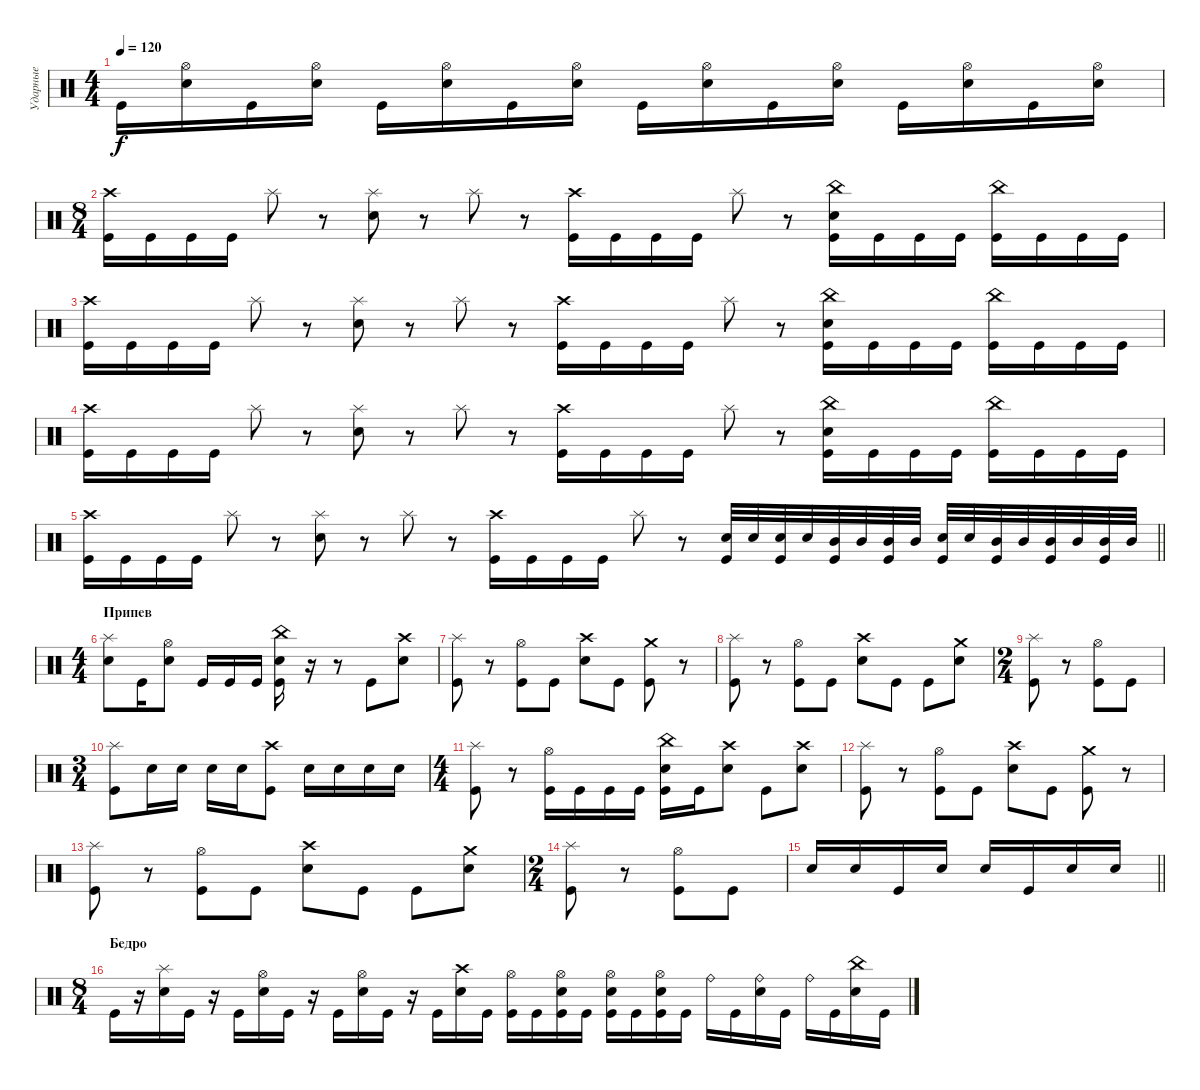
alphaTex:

\track ("Ударные" "Ударные") {instrument percussion}
\staff {score}
\articulation defaults
\ts (4 4)
\tempo 120
\clef neutral
\ks c "Kick (hit)".16{dy f}
("Snare (hit) 2" "Hi-Hat (open)").16 "Kick (hit)".16 ("Snare (hit) 2" "Hi-Hat (open)").16 "Kick (hit)".16 ("Snare (hit) 2" "Hi-Hat (open)").16 "Kick (hit)".16 ("Snare (hit) 2" "Hi-Hat (open)").16 "Kick (hit)".16 ("Snare (hit) 2" "Hi-Hat (open)").16 "Kick (hit)".16 ("Snare (hit) 2" "Hi-Hat (open)").16 "Kick (hit)".16 ("Snare (hit) 2" "Hi-Hat (open)").16 "Kick (hit)".16 ("Snare (hit) 2" "Hi-Hat (open)").16 |
\ts (8 4)
("Kick (hit)" "Crash high (hit)").16 "Kick (hit)".16 "Kick (hit)".16 "Kick (hit)".16 "Splash (hit)".8 r.8 ("Snare (hit) 2" "Splash (hit)").8 r.8 "Splash (hit)".8 r.8 ("Kick (hit)" "Crash high (hit)").16 "Kick (hit)".16 "Kick (hit)".16 "Kick (hit)".16 "Splash (hit)".8 r.8 ("Kick (hit)" "Snare (hit) 2" "China (hit)").16 "Kick (hit)".16 "Kick (hit)".16 "Kick (hit)".16 ("Kick (hit)" "China (hit)").16 "Kick (hit)".16 "Kick (hit)".16 "Kick (hit)".16 |
("Kick (hit)" "Crash high (hit)").16 "Kick (hit)".16 "Kick (hit)".16 "Kick (hit)".16 "Splash (hit)".8 r.8 ("Snare (hit) 2" "Splash (hit)").8 r.8 "Splash (hit)".8 r.8 ("Kick (hit)" "Crash high (hit)").16 "Kick (hit)".16 "Kick (hit)".16 "Kick (hit)".16 "Splash (hit)".8 r.8 ("Kick (hit)" "Snare (hit) 2" "China (hit)").16 "Kick (hit)".16 "Kick (hit)".16 "Kick (hit)".16 ("Kick (hit)" "China (hit)").16 "Kick (hit)".16 "Kick (hit)".16 "Kick (hit)".16 |
("Kick (hit)" "Crash high (hit)").16 "Kick (hit)".16 "Kick (hit)".16 "Kick (hit)".16 "Splash (hit)".8 r.8 ("Snare (hit) 2" "Splash (hit)").8 r.8 "Splash (hit)".8 r.8 ("Kick (hit)" "Crash high (hit)").16 "Kick (hit)".16 "Kick (hit)".16 "Kick (hit)".16 "Splash (hit)".8 r.8 ("Kick (hit)" "Snare (hit) 2" "China (hit)").16 "Kick (hit)".16 "Kick (hit)".16 "Kick (hit)".16 ("Kick (hit)" "China (hit)").16 "Kick (hit)".16 "Kick (hit)".16 "Kick (hit)".16 |
\barLineRight lightlight
("Kick (hit)" "Crash high (hit)").16 "Kick (hit)".16 "Kick (hit)".16 "Kick (hit)".16 "Splash (hit)".8 r.8 ("Snare (hit) 2" "Splash (hit)").8 r.8 "Splash (hit)".8 r.8 ("Kick (hit)" "Crash high (hit)").16 "Kick (hit)".16 "Kick (hit)".16 "Kick (hit)".16 "Splash (hit)".8 r.8 ("Snare (hit) 2" "Kick (hit)").32 "Snare (hit) 2".32 ("Snare (hit) 2" "Kick (hit)").32 "Snare (hit) 2".32 ("Mid Tom (hit)" "Kick (hit)").32 "Mid Tom (hit)".32 ("Mid Tom (hit)" "Kick (hit)").32 "Mid Tom (hit)".32 ("Snare (hit) 2" "Kick (hit)").32 "Snare (hit) 2".32 ("Mid Tom (hit)" "Kick (hit)").32 "Mid Tom (hit)".32 ("Mid Tom (hit)" "Kick (hit)").32 "Mid Tom (hit)".32 ("Mid Tom (hit)" "Kick (hit)").32 "Mid Tom (hit)".32 |
\ts (4 4)
\section ("" "Припев")
("Snare (hit) 2" "Splash (hit)").8 "Kick (hit)".16 ("Snare (hit) 2" "Hi-Hat (open)").8 "Kick (hit)".16 "Kick (hit)".16 "Kick (hit)".16 ("Kick (hit)" "Snare (hit) 2" "China (hit)").16 r.16 r.8 "Kick (hit)".8 ("Snare (hit) 2" "Crash high (hit)").8 |
("Kick (hit)" "Splash (hit)").8 r.8 ("Kick (hit)" "Hi-Hat (open)").8 "Kick (hit)".8 ("Snare (hit) 2" "Crash high (hit)").8 "Kick (hit)".8 ("Kick (hit)" "Crash medium (hit)").8 r.8 |
("Kick (hit)" "Splash (hit)").8 r.8 ("Kick (hit)" "Hi-Hat (open)").8 "Kick (hit)".8 ("Snare (hit) 2" "Crash high (hit)").8 "Kick (hit)".8 "Kick (hit)".8 ("Snare (hit) 2" "Crash medium (hit)").8 |
\ts (2 4)
("Kick (hit)" "Splash (hit)").8 r.8 ("Kick (hit)" "Hi-Hat (open)").8 "Kick (hit)".8 |
\ts (3 4)
("Kick (hit)" "Splash (hit)").8 "Snare (hit) 2".16 "Snare (hit) 2".16 "Snare (hit) 2".16 "Snare (hit) 2".16 ("Kick (hit)" "Crash high (hit)").8 "Snare (hit) 2".16 "Snare (hit) 2".16 "Snare (hit) 2".16 "Snare (hit) 2".16 |
\ts (4 4)
("Kick (hit)" "Splash (hit)").8 r.8 ("Kick (hit)" "Hi-Hat (open)").16 "Kick (hit)".16 "Kick (hit)".16 "Kick (hit)".16 ("Kick (hit)" "Snare (hit) 2" "China (hit)").16 "Kick (hit)".16 ("Snare (hit) 2" "Crash high (hit)").8 "Kick (hit)".8 ("Snare (hit) 2" "Crash high (hit)").8 |
("Kick (hit)" "Splash (hit)").8 r.8 ("Kick (hit)" "Hi-Hat (open)").8 "Kick (hit)".8 ("Snare (hit) 2" "Crash high (hit)").8 "Kick (hit)".8 ("Kick (hit)" "Crash medium (hit)").8 r.8 |
("Kick (hit)" "Splash (hit)").8 r.8 ("Kick (hit)" "Hi-Hat (open)").8 "Kick (hit)".8 ("Snare (hit) 2" "Crash high (hit)").8 "Kick (hit)".8 "Kick (hit)".8 ("Snare (hit) 2" "Crash medium (hit)").8 |
\ts (2 4)
("Kick (hit)" "Splash (hit)").8 r.8 ("Kick (hit)" "Hi-Hat (open)").8 "Kick (hit)".8 |
\barLineRight lightlight "Snare (hit) 2".16 "Snare (hit) 2".16 "Kick (hit)".16 "Snare (hit) 2".16 "Snare (hit) 2".16 "Kick (hit)".16 "Snare (hit) 2".16 "Snare (hit) 2".16
|
\ts (8 4)
\section ("" "Бедро")
"Kick (hit)".16 r.16 ("Snare (hit) 2" "Splash (hit)").16 "Kick (hit)".16 r.16 "Kick (hit)".16 ("Snare (hit) 2" "Hi-Hat (open)").16 "Kick (hit)".16 r.16 "Kick (hit)".16 ("Snare (hit) 2" "Hi-Hat (open)").16 "Kick (hit)".16 r.16 "Kick (hit)".16 ("Snare (hit) 2" "Crash high (hit)").16 "Kick (hit)".16 ("Kick (hit)" "Hi-Hat (open)").16 "Kick (hit)".16 ("Kick (hit)" "Snare (hit) 2" "Hi-Hat (open)").16 "Kick (hit)".16 ("Kick (hit)" "Snare (hit) 2" "Hi-Hat (open)").16 "Kick (hit)".16 ("Kick (hit)" "Snare (hit) 2" "Hi-Hat (open)").16 "Kick (hit)".16 "Ride (bell)".16 "Kick (hit)".16 ("Snare (hit) 2" "Ride (bell)").16 "Kick (hit)".16 "Ride (bell)".16 "Kick (hit)".16 ("Snare (hit) 2" "China (hit)").16 "Kick (hit)".16
